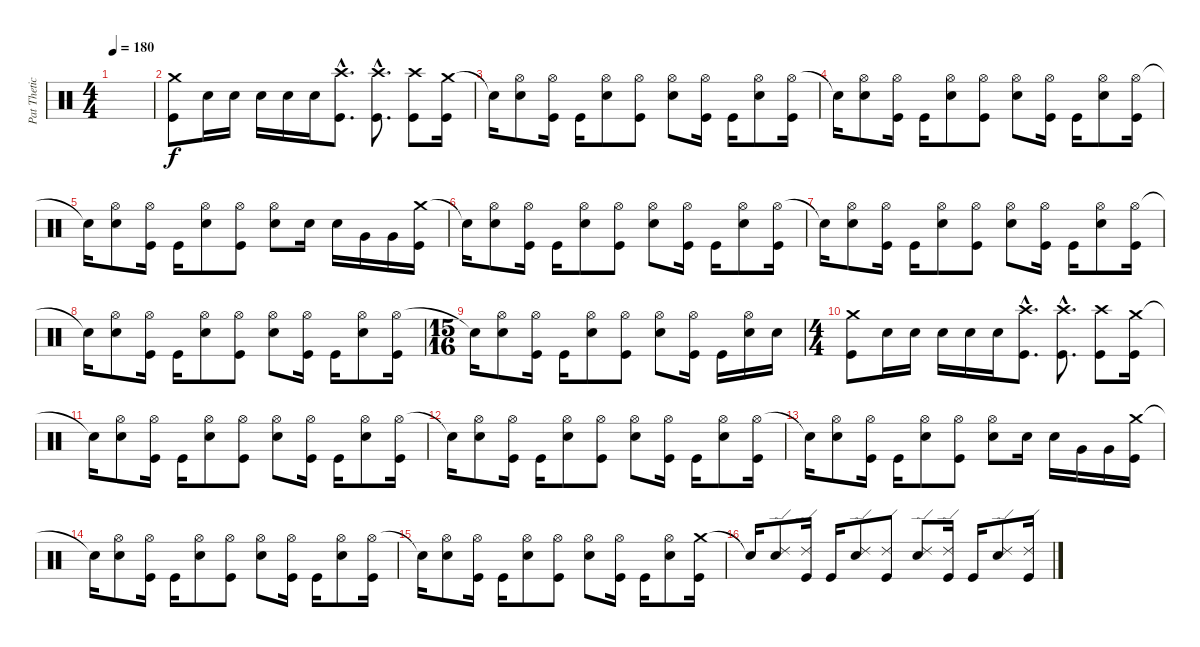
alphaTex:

\track ("Pat Thetic" "Pat Thetic") {instrument percussion}
\staff {score}
\articulation defaults
\ts (4 4)
\tempo 180
\clef neutral
\ks c
|
("Crash medium (hit)" "Kick (hit)").8 "Electric Snare (hit)".16 "Electric Snare (hit)".16 "Electric Snare (hit)".16 "Electric Snare (hit)".16 "Electric Snare (hit)".16 ("Crash high (hit)"{hac} "Kick (hit)"{hac}).8{d} ("Crash high (hit)"{hac} "Kick (hit)"{hac}).8{d} ("Crash high (hit)" "Kick (hit)").8 ("Crash medium (hit)" "Kick (hit)").16 |
"Snare (hit)"{t}.16 ("Hi-Hat (open)" "Electric Snare (hit)").8 ("Hi-Hat (open)" "Kick (hit)").16 "Kick (hit)".16 ("Hi-Hat (open)" "Electric Snare (hit)").8 ("Hi-Hat (open)" "Kick (hit)").8 ("Hi-Hat (open)" "Electric Snare (hit)").8 ("Hi-Hat (open)" "Kick (hit)").16 "Kick (hit)".16 ("Hi-Hat (open)" "Electric Snare (hit)").8 ("Hi-Hat (open)" "Kick (hit)").16 |
"Snare (hit)"{t}.16 ("Hi-Hat (open)" "Electric Snare (hit)").8 ("Hi-Hat (open)" "Kick (hit)").16 "Kick (hit)".16 ("Hi-Hat (open)" "Electric Snare (hit)").8 ("Hi-Hat (open)" "Kick (hit)").8 ("Hi-Hat (open)" "Electric Snare (hit)").8 ("Hi-Hat (open)" "Kick (hit)").16 "Kick (hit)".16 ("Hi-Hat (open)" "Electric Snare (hit)").8 ("Hi-Hat (open)" "Kick (hit)").16 |
"Snare (hit)"{t}.16 ("Hi-Hat (open)" "Electric Snare (hit)").8 ("Hi-Hat (open)" "Kick (hit)").16 "Kick (hit)".16 ("Hi-Hat (open)" "Electric Snare (hit)").8 ("Hi-Hat (open)" "Kick (hit)").8 ("Hi-Hat (open)" "Electric Snare (hit)").8 "Electric Snare (hit)".16 "Electric Snare (hit)".16 "Very Low Tom (hit)".16 "Very Low Tom (hit)".16 ("Crash medium (hit)" "Kick (hit)").16 |
"Snare (hit)"{t}.16 ("Hi-Hat (open)" "Electric Snare (hit)").8 ("Hi-Hat (open)" "Kick (hit)").16 "Kick (hit)".16 ("Hi-Hat (open)" "Electric Snare (hit)").8 ("Hi-Hat (open)" "Kick (hit)").8 ("Hi-Hat (open)" "Electric Snare (hit)").8 ("Hi-Hat (open)" "Kick (hit)").16 "Kick (hit)".16 ("Hi-Hat (open)" "Electric Snare (hit)").8 ("Hi-Hat (open)" "Kick (hit)").16 |
"Snare (hit)"{t}.16 ("Hi-Hat (open)" "Electric Snare (hit)").8 ("Hi-Hat (open)" "Kick (hit)").16 "Kick (hit)".16 ("Hi-Hat (open)" "Electric Snare (hit)").8 ("Hi-Hat (open)" "Kick (hit)").8 ("Hi-Hat (open)" "Electric Snare (hit)").8 ("Hi-Hat (open)" "Kick (hit)").16 "Kick (hit)".16 ("Hi-Hat (open)" "Electric Snare (hit)").8 ("Hi-Hat (open)" "Kick (hit)").16 |
"Snare (hit)"{t}.16 ("Hi-Hat (open)" "Electric Snare (hit)").8 ("Hi-Hat (open)" "Kick (hit)").16 "Kick (hit)".16 ("Hi-Hat (open)" "Electric Snare (hit)").8 ("Hi-Hat (open)" "Kick (hit)").8 ("Hi-Hat (open)" "Electric Snare (hit)").8 ("Hi-Hat (open)" "Kick (hit)").16 "Kick (hit)".16 ("Hi-Hat (open)" "Electric Snare (hit)").8 ("Hi-Hat (open)" "Kick (hit)").16 |
\ts (15 16)
"Snare (hit)"{t}.16 ("Hi-Hat (open)" "Electric Snare (hit)").8 ("Hi-Hat (open)" "Kick (hit)").16 "Kick (hit)".16 ("Hi-Hat (open)" "Electric Snare (hit)").8 ("Hi-Hat (open)" "Kick (hit)").8 ("Hi-Hat (open)" "Electric Snare (hit)").8 ("Hi-Hat (open)" "Kick (hit)").16 "Kick (hit)".16 ("Hi-Hat (open)" "Electric Snare (hit)").16 "Electric Snare (hit)".16 |
\ts (4 4)
("Crash medium (hit)" "Kick (hit)").8 "Electric Snare (hit)".16 "Electric Snare (hit)".16 "Electric Snare (hit)".16 "Electric Snare (hit)".16 "Electric Snare (hit)".16 ("Crash high (hit)"{hac} "Kick (hit)"{hac}).8{d} ("Crash high (hit)"{hac} "Kick (hit)"{hac}).8{d} ("Crash high (hit)" "Kick (hit)").8 ("Crash medium (hit)" "Kick (hit)").16 |
"Snare (hit)"{t}.16 ("Hi-Hat (open)" "Electric Snare (hit)").8 ("Hi-Hat (open)" "Kick (hit)").16 "Kick (hit)".16 ("Hi-Hat (open)" "Electric Snare (hit)").8 ("Hi-Hat (open)" "Kick (hit)").8 ("Hi-Hat (open)" "Electric Snare (hit)").8 ("Hi-Hat (open)" "Kick (hit)").16 "Kick (hit)".16 ("Hi-Hat (open)" "Electric Snare (hit)").8 ("Hi-Hat (open)" "Kick (hit)").16 |
"Snare (hit)"{t}.16 ("Hi-Hat (open)" "Electric Snare (hit)").8 ("Hi-Hat (open)" "Kick (hit)").16 "Kick (hit)".16 ("Hi-Hat (open)" "Electric Snare (hit)").8 ("Hi-Hat (open)" "Kick (hit)").8 ("Hi-Hat (open)" "Electric Snare (hit)").8 ("Hi-Hat (open)" "Kick (hit)").16 "Kick (hit)".16 ("Hi-Hat (open)" "Electric Snare (hit)").8 ("Hi-Hat (open)" "Kick (hit)").16 |
"Snare (hit)"{t}.16 ("Hi-Hat (open)" "Electric Snare (hit)").8 ("Hi-Hat (open)" "Kick (hit)").16 "Kick (hit)".16 ("Hi-Hat (open)" "Electric Snare (hit)").8 ("Hi-Hat (open)" "Kick (hit)").8 ("Hi-Hat (open)" "Electric Snare (hit)").8 "Electric Snare (hit)".16 "Electric Snare (hit)".16 "Very Low Tom (hit)".16 "Very Low Tom (hit)".16 ("Crash medium (hit)" "Kick (hit)").16 |
"Snare (hit)"{t}.16 ("Hi-Hat (open)" "Electric Snare (hit)").8 ("Hi-Hat (open)" "Kick (hit)").16 "Kick (hit)".16 ("Hi-Hat (open)" "Electric Snare (hit)").8 ("Hi-Hat (open)" "Kick (hit)").8 ("Hi-Hat (open)" "Electric Snare (hit)").8 ("Hi-Hat (open)" "Kick (hit)").16 "Kick (hit)".16 ("Hi-Hat (open)" "Electric Snare (hit)").8 ("Hi-Hat (open)" "Kick (hit)").16 |
"Snare (hit)"{t}.16 ("Hi-Hat (open)" "Electric Snare (hit)").8 ("Hi-Hat (open)" "Kick (hit)").16 "Kick (hit)".16 ("Hi-Hat (open)" "Electric Snare (hit)").8 ("Hi-Hat (open)" "Kick (hit)").8 ("Hi-Hat (open)" "Electric Snare (hit)").8 ("Hi-Hat (open)" "Kick (hit)").16 "Kick (hit)".16 ("Hi-Hat (open)" "Electric Snare (hit)").8 ("Crash medium (hit)" "Kick (hit)").16 |
"Snare (hit)"{t}.16 ("Ride (edge) 2" "Electric Snare (hit)").8 ("Ride (edge) 2" "Kick (hit)").16 "Kick (hit)".16 ("Ride (edge) 2" "Electric Snare (hit)").8 ("Ride (edge) 2" "Kick (hit)").8 ("Ride (edge) 2" "Electric Snare (hit)").8 ("Ride (edge) 2" "Kick (hit)").16 "Kick (hit)".16 ("Ride (edge) 2" "Electric Snare (hit)").8 ("Ride (edge) 2" "Kick (hit)").16
